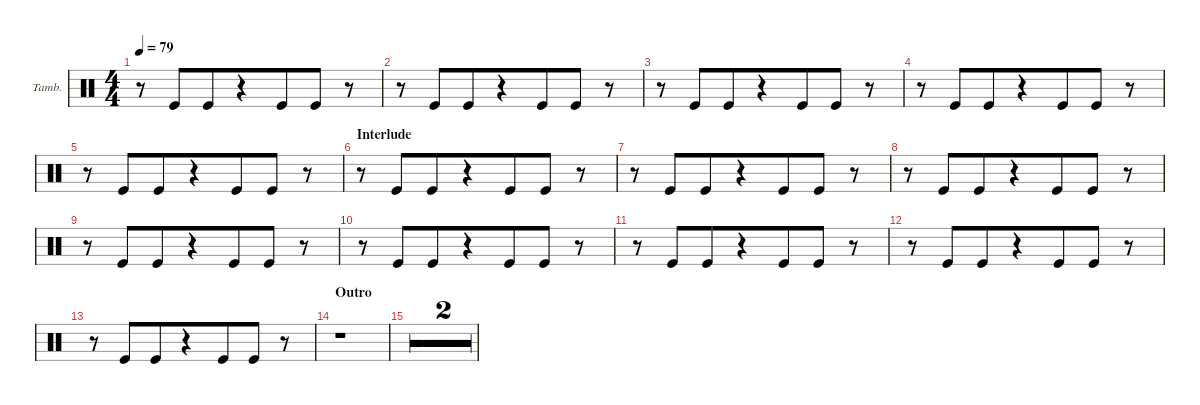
\defaultSystemsLayout 4
\hideDynamics
\bracketExtendMode groupsimilarinstruments
\firstSystemTrackNameOrientation horizontal
\otherSystemsTrackNameOrientation horizontal
\track ("Tambourine" "Tamb.") {multiBarRest instrument percussion}
\staff {score}
\articulation defaults
\ts (4 4)
\tempo 79
\clef neutral
\ks c
r.8{dy mf beam merge} "Kick (hit)".8{beam merge} "Kick (hit)".8{beam merge} r.4{beam merge} "Kick (hit)".8{beam merge} "Kick (hit)".8{beam merge} r.8{beam merge} |
r.8{beam merge} "Kick (hit)".8{beam merge} "Kick (hit)".8{beam merge} r.4{beam merge} "Kick (hit)".8{beam merge} "Kick (hit)".8{beam merge} r.8{beam merge} |
r.8{beam merge} "Kick (hit)".8{beam merge} "Kick (hit)".8{beam merge} r.4{beam merge} "Kick (hit)".8{beam merge} "Kick (hit)".8{beam merge} r.8{beam merge} |
r.8{beam merge} "Kick (hit)".8{beam merge} "Kick (hit)".8{beam merge} r.4{beam merge} "Kick (hit)".8{beam merge} "Kick (hit)".8{beam merge} r.8{beam merge} |
r.8{beam merge} "Kick (hit)".8{beam merge} "Kick (hit)".8{beam merge} r.4{beam merge} "Kick (hit)".8{beam merge} "Kick (hit)".8{beam merge} r.8{beam merge} |
\section ("" "Interlude")
r.8{beam merge} "Kick (hit)".8{dy mp beam merge} "Kick (hit)".8{beam merge} r.4{beam merge} "Kick (hit)".8{beam merge} "Kick (hit)".8{beam merge} r.8{beam merge} |
r.8{beam merge} "Kick (hit)".8{beam merge} "Kick (hit)".8{beam merge} r.4{beam merge} "Kick (hit)".8{beam merge} "Kick (hit)".8{beam merge} r.8{beam merge} |
r.8{beam merge} "Kick (hit)".8{beam merge} "Kick (hit)".8{beam merge} r.4{beam merge} "Kick (hit)".8{beam merge} "Kick (hit)".8{beam merge} r.8{beam merge} |
r.8{beam merge} "Kick (hit)".8{beam merge} "Kick (hit)".8{beam merge} r.4{beam merge} "Kick (hit)".8{beam merge} "Kick (hit)".8{beam merge} r.8{beam merge} |
r.8{beam merge} "Kick (hit)".8{beam merge} "Kick (hit)".8{beam merge} r.4{beam merge} "Kick (hit)".8{beam merge} "Kick (hit)".8{beam merge} r.8{beam merge} |
r.8{beam merge} "Kick (hit)".8{beam merge} "Kick (hit)".8{beam merge} r.4{beam merge} "Kick (hit)".8{beam merge} "Kick (hit)".8{beam merge} r.8{beam merge} |
r.8{beam merge} "Kick (hit)".8{beam merge} "Kick (hit)".8{beam merge} r.4{beam merge} "Kick (hit)".8{beam merge} "Kick (hit)".8{beam merge} r.8{beam merge} |
r.8{beam merge} "Kick (hit)".8{beam merge} "Kick (hit)".8{beam merge} r.4{beam merge} "Kick (hit)".8{beam merge} "Kick (hit)".8{beam merge} r.8{beam merge} |
\section ("" "Outro")
r.1 |
r.1 |
r.1
